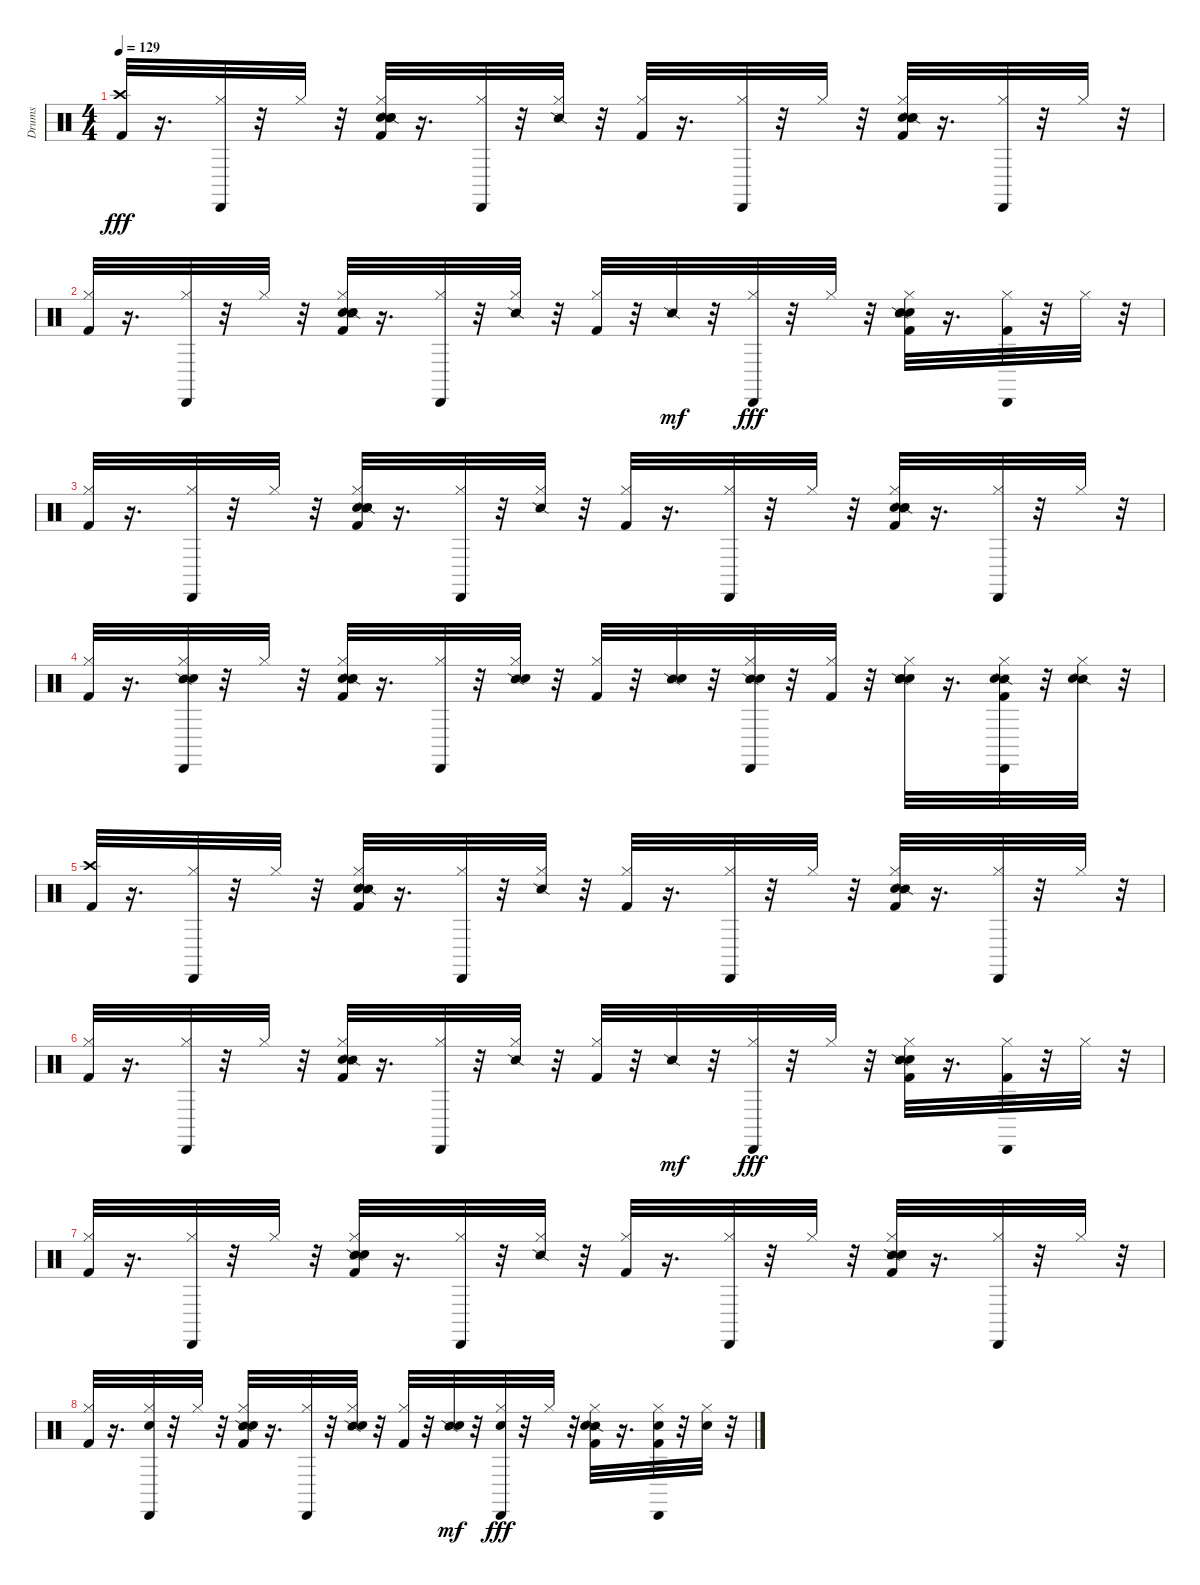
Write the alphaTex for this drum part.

\track ("Drums" "Drums") {instrument percussion}
\staff {score}
\articulation defaults
\ts (4 4)
\tempo 129
\clef neutral
\ks c
("Kick (hit) 2" "Crash high (hit)").32{dy fff} r.16{d} ("Cabasa (hit)" "Hi-Hat (closed)").32 r.32 "Hi-Hat (closed)".32 r.32 ("Snare (hit)" "Hand Clap (hit)" "Snare (side stick) 2" "Hi-Hat (closed)" "Kick (hit) 2").32 r.16{d} ("Cabasa (hit)" "Hi-Hat (closed)").32 r.32 ("Snare (side stick) 2" "Hi-Hat (closed)").32 r.32 ("Kick (hit) 2" "Hi-Hat (closed)").32 r.16{d} ("Cabasa (hit)" "Hi-Hat (closed)").32 r.32 "Hi-Hat (closed)".32 r.32 ("Snare (hit)" "Hand Clap (hit)" "Snare (side stick) 2" "Hi-Hat (closed)" "Kick (hit) 2").32 r.16{d} ("Cabasa (hit)" "Hi-Hat (closed)").32 r.32 "Hi-Hat (closed)".32 r.32 |
("Kick (hit) 2" "Hi-Hat (closed)").32 r.16{d} ("Cabasa (hit)" "Hi-Hat (closed)").32 r.32 "Hi-Hat (closed)".32 r.32 ("Snare (hit)" "Hand Clap (hit)" "Snare (side stick) 2" "Hi-Hat (closed)" "Kick (hit) 2").32 r.16{d} ("Cabasa (hit)" "Hi-Hat (closed)").32 r.32 ("Snare (side stick) 2" "Hi-Hat (closed)").32 r.32 ("Kick (hit) 2" "Hi-Hat (closed)").32 r.32 "Snare (side stick) 2".32{dy mf} r.32 ("Cabasa (hit)" "Hi-Hat (closed)").32{dy fff} r.32 "Hi-Hat (closed)".32 r.32 ("Snare (hit)" "Hand Clap (hit)" "Snare (side stick) 2" "Hi-Hat (closed)" "Kick (hit) 2").32 r.16{d} ("Kick (hit) 2" "Cabasa (hit)" "Hi-Hat (closed)").32 r.32 "Hi-Hat (closed)".32 r.32 |
("Kick (hit) 2" "Hi-Hat (closed)").32 r.16{d} ("Cabasa (hit)" "Hi-Hat (closed)").32 r.32 "Hi-Hat (closed)".32 r.32 ("Snare (hit)" "Snare (side stick) 2" "Hi-Hat (closed)" "Kick (hit) 2" "Hand Clap (hit)").32 r.16{d} ("Cabasa (hit)" "Hi-Hat (closed)").32 r.32 ("Snare (side stick) 2" "Hi-Hat (closed)").32 r.32 ("Kick (hit) 2" "Hi-Hat (closed)").32 r.16{d} ("Cabasa (hit)" "Hi-Hat (closed)").32 r.32 "Hi-Hat (closed)".32 r.32 ("Snare (hit)" "Snare (side stick) 2" "Hi-Hat (closed)" "Kick (hit) 2" "Hand Clap (hit)").32 r.16{d} ("Cabasa (hit)" "Hi-Hat (closed)").32 r.32 "Hi-Hat (closed)".32 r.32 |
("Kick (hit) 2" "Hi-Hat (closed)").32 r.16{d} ("Snare (side stick) 2" "Cabasa (hit)" "Hi-Hat (closed)" "Hand Clap (hit)").32 r.32 "Hi-Hat (closed)".32 r.32 ("Snare (hit)" "Snare (side stick) 2" "Hi-Hat (closed)" "Kick (hit) 2" "Hand Clap (hit)").32 r.16{d} ("Cabasa (hit)" "Hi-Hat (closed)").32 r.32 ("Snare (side stick) 2" "Hi-Hat (closed)" "Hand Clap (hit)").32 r.32 ("Kick (hit) 2" "Hi-Hat (closed)").32 r.32 ("Snare (side stick) 2" "Hand Clap (hit)").32 r.32 ("Snare (side stick) 2" "Cabasa (hit)" "Hi-Hat (closed)" "Hand Clap (hit)").32 r.32 ("Hi-Hat (closed)" "Kick (hit) 2").32 r.32 ("Snare (hit)" "Snare (side stick) 2" "Hi-Hat (closed)" "Hand Clap (hit)").32 r.16{d} ("Snare (side stick) 2" "Kick (hit) 2" "Cabasa (hit)" "Hi-Hat (closed)" "Hand Clap (hit)").32 r.32 ("Snare (side stick) 2" "Hi-Hat (closed)" "Hand Clap (hit)").32 r.32 |
("Kick (hit) 2" "Crash high (hit)").32 r.16{d} ("Cabasa (hit)" "Hi-Hat (closed)").32 r.32 "Hi-Hat (closed)".32 r.32 ("Hand Clap (hit)" "Snare (side stick) 2" "Hi-Hat (closed)" "Kick (hit) 2").32 r.16{d} ("Cabasa (hit)" "Hi-Hat (closed)").32 r.32 ("Snare (side stick) 2" "Hi-Hat (closed)").32 r.32 ("Kick (hit) 2" "Hi-Hat (closed)").32 r.16{d} ("Cabasa (hit)" "Hi-Hat (closed)").32 r.32 "Hi-Hat (closed)".32 r.32 ("Hand Clap (hit)" "Snare (side stick) 2" "Hi-Hat (closed)" "Kick (hit) 2").32 r.16{d} ("Cabasa (hit)" "Hi-Hat (closed)").32 r.32 "Hi-Hat (closed)".32 r.32 |
("Kick (hit) 2" "Hi-Hat (closed)").32 r.16{d} ("Cabasa (hit)" "Hi-Hat (closed)").32 r.32 "Hi-Hat (closed)".32 r.32 ("Hand Clap (hit)" "Snare (side stick) 2" "Hi-Hat (closed)" "Kick (hit) 2").32 r.16{d} ("Cabasa (hit)" "Hi-Hat (closed)").32 r.32 ("Snare (side stick) 2" "Hi-Hat (closed)").32 r.32 ("Kick (hit) 2" "Hi-Hat (closed)").32 r.32 "Snare (side stick) 2".32{dy mf} r.32 ("Cabasa (hit)" "Hi-Hat (closed)").32{dy fff} r.32 "Hi-Hat (closed)".32 r.32 ("Hand Clap (hit)" "Snare (side stick) 2" "Hi-Hat (closed)" "Kick (hit) 2").32 r.16{d} ("Kick (hit) 2" "Cabasa (hit)" "Hi-Hat (closed)").32 r.32 "Hi-Hat (closed)".32 r.32 |
("Kick (hit) 2" "Hi-Hat (closed)").32 r.16{d} ("Cabasa (hit)" "Hi-Hat (closed)").32 r.32 "Hi-Hat (closed)".32 r.32 ("Snare (side stick) 2" "Hi-Hat (closed)" "Kick (hit) 2" "Hand Clap (hit)").32 r.16{d} ("Cabasa (hit)" "Hi-Hat (closed)").32 r.32 ("Snare (side stick) 2" "Hi-Hat (closed)").32 r.32 ("Kick (hit) 2" "Hi-Hat (closed)").32 r.16{d} ("Cabasa (hit)" "Hi-Hat (closed)").32 r.32 "Hi-Hat (closed)".32 r.32 ("Snare (side stick) 2" "Hi-Hat (closed)" "Kick (hit) 2" "Hand Clap (hit)").32 r.16{d} ("Cabasa (hit)" "Hi-Hat (closed)").32 r.32 "Hi-Hat (closed)".32 r.32 |
("Kick (hit) 2" "Hi-Hat (closed)").32 r.16{d} ("Cabasa (hit)" "Hi-Hat (closed)" "Hand Clap (hit)").32 r.32 "Hi-Hat (closed)".32 r.32 ("Snare (side stick) 2" "Hi-Hat (closed)" "Kick (hit) 2" "Hand Clap (hit)").32 r.16{d} ("Cabasa (hit)" "Hi-Hat (closed)").32 r.32 ("Snare (side stick) 2" "Hi-Hat (closed)" "Hand Clap (hit)").32 r.32 ("Kick (hit) 2" "Hi-Hat (closed)").32 r.32 ("Snare (side stick) 2" "Hand Clap (hit)").32{dy mf} r.32 ("Cabasa (hit)" "Hi-Hat (closed)" "Hand Clap (hit)").32{dy fff} r.32 "Hi-Hat (closed)".32 r.32 ("Snare (side stick) 2" "Hi-Hat (closed)" "Kick (hit) 2" "Hand Clap (hit)").32 r.16{d} ("Kick (hit) 2" "Cabasa (hit)" "Hi-Hat (closed)" "Hand Clap (hit)").32 r.32 ("Hi-Hat (closed)" "Hand Clap (hit)").32 r.32
